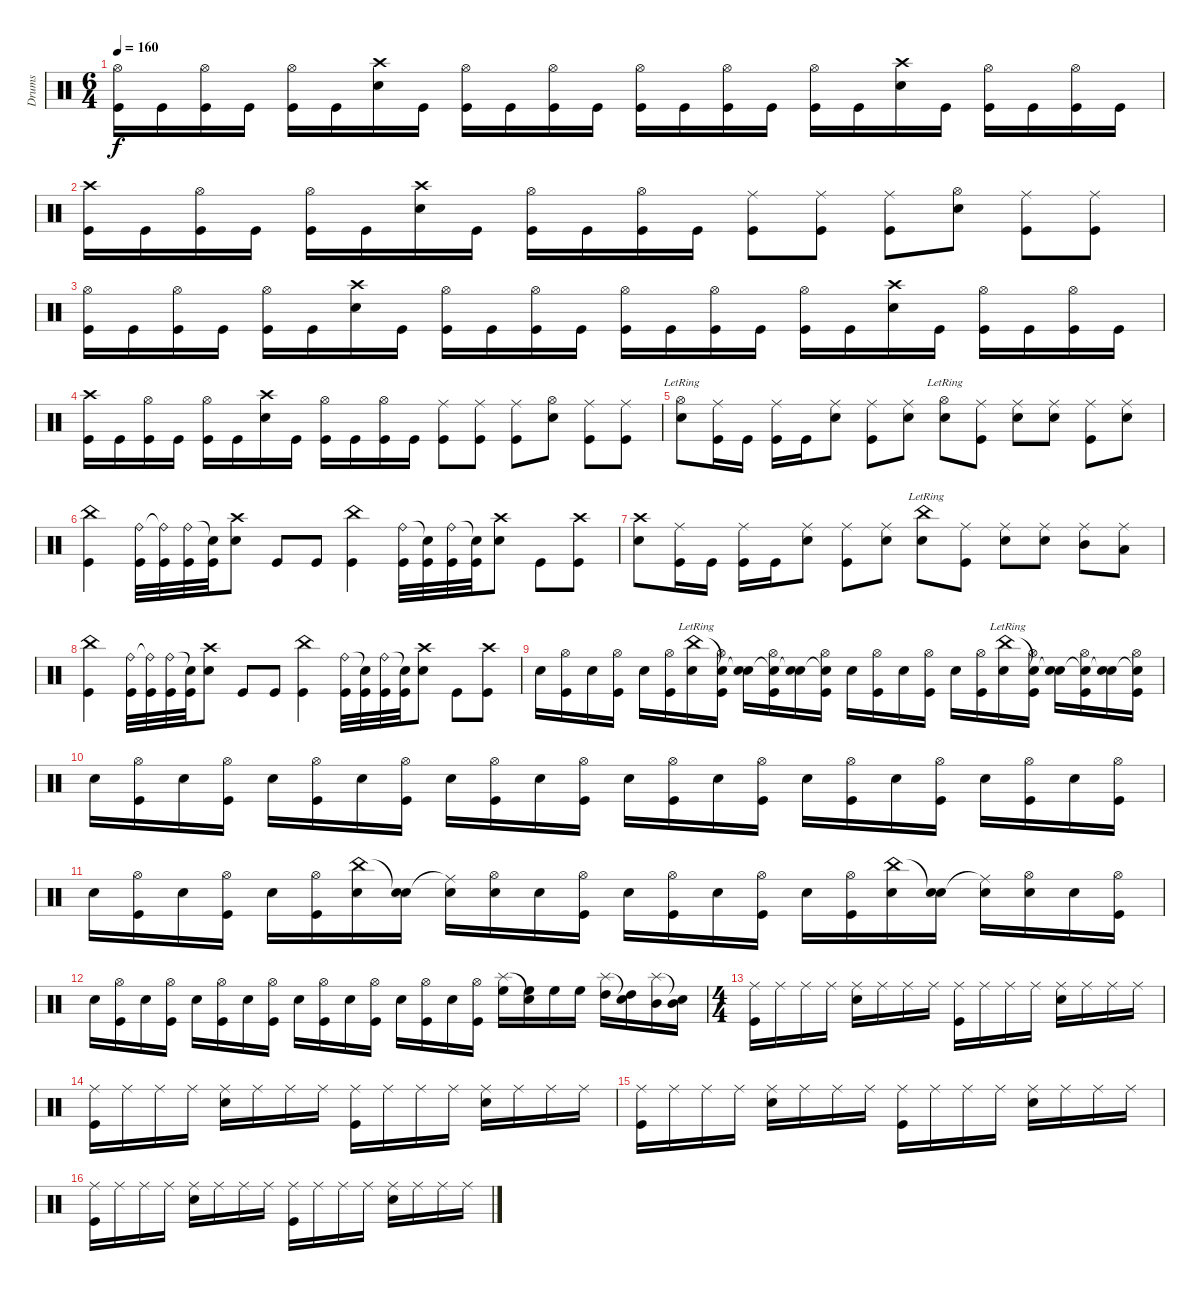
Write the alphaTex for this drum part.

\track ("Drums" "Drums") {instrument percussion}
\staff {score}
\articulation defaults
\ts (6 4)
\tempo 160
\clef neutral
\ks c
("Hi-Hat (open)" "Kick (hit)").16{dy f} "Kick (hit)".16 ("Hi-Hat (open)" "Kick (hit)").16 "Kick (hit)".16 ("Hi-Hat (open)" "Kick (hit)").16 "Kick (hit)".16 ("Crash high (hit)" "Snare (hit) 2").16 "Kick (hit)".16 ("Hi-Hat (open)" "Kick (hit)").16 "Kick (hit)".16 ("Hi-Hat (open)" "Kick (hit)").16 "Kick (hit)".16 ("Hi-Hat (open)" "Kick (hit)").16 "Kick (hit)".16 ("Hi-Hat (open)" "Kick (hit)").16 "Kick (hit)".16 ("Hi-Hat (open)" "Kick (hit)").16 "Kick (hit)".16 ("Crash high (hit)" "Snare (hit) 2").16 "Kick (hit)".16 ("Hi-Hat (open)" "Kick (hit)").16 "Kick (hit)".16 ("Hi-Hat (open)" "Kick (hit)").16 "Kick (hit)".16 |
("Crash high (hit)" "Kick (hit)").16 "Kick (hit)".16 ("Hi-Hat (open)" "Kick (hit)").16 "Kick (hit)".16 ("Hi-Hat (open)" "Kick (hit)").16 "Kick (hit)".16 ("Crash high (hit)" "Snare (hit) 2").16 "Kick (hit)".16 ("Hi-Hat (open)" "Kick (hit)").16 "Kick (hit)".16 ("Hi-Hat (open)" "Kick (hit)").16 "Kick (hit)".16 ("Ride (middle)" "Kick (hit)").8 ("Ride (middle)" "Kick (hit)").8 ("Ride (middle)" "Kick (hit)").8 ("Hi-Hat (open)" "Electric Snare (hit)").8 ("Ride (middle)" "Kick (hit)").8 ("Ride (middle)" "Kick (hit)").8 |
("Hi-Hat (open)" "Kick (hit)").16 "Kick (hit)".16 ("Hi-Hat (open)" "Kick (hit)").16 "Kick (hit)".16 ("Hi-Hat (open)" "Kick (hit)").16 "Kick (hit)".16 ("Crash high (hit)" "Snare (hit) 2").16 "Kick (hit)".16 ("Hi-Hat (open)" "Kick (hit)").16 "Kick (hit)".16 ("Hi-Hat (open)" "Kick (hit)").16 "Kick (hit)".16 ("Hi-Hat (open)" "Kick (hit)").16 "Kick (hit)".16 ("Hi-Hat (open)" "Kick (hit)").16 "Kick (hit)".16 ("Hi-Hat (open)" "Kick (hit)").16 "Kick (hit)".16 ("Crash high (hit)" "Snare (hit) 2").16 "Kick (hit)".16 ("Hi-Hat (open)" "Kick (hit)").16 "Kick (hit)".16 ("Hi-Hat (open)" "Kick (hit)").16 "Kick (hit)".16 |
("Crash high (hit)" "Kick (hit)").16 "Kick (hit)".16 ("Hi-Hat (open)" "Kick (hit)").16 "Kick (hit)".16 ("Hi-Hat (open)" "Kick (hit)").16 "Kick (hit)".16 ("Crash high (hit)" "Snare (hit) 2").16 "Kick (hit)".16 ("Hi-Hat (open)" "Kick (hit)").16 "Kick (hit)".16 ("Hi-Hat (open)" "Kick (hit)").16 "Kick (hit)".16 ("Ride (middle)" "Kick (hit)").8 ("Ride (middle)" "Kick (hit)").8 ("Ride (middle)" "Kick (hit)").8 ("Hi-Hat (open)" "Electric Snare (hit)").8 ("Ride (middle)" "Kick (hit)").8 ("Ride (middle)" "Kick (hit)").8 |
("Hi-Hat (open)"{lr} "Electric Snare (hit)").8 ("Ride (middle)" "Kick (hit)").16 "Kick (hit)".16 ("Ride (middle)" "Kick (hit)").16 "Kick (hit)".16 ("Ride (middle)" "Electric Snare (hit)").8 ("Ride (middle)" "Kick (hit)").8 ("Ride (middle)" "Electric Snare (hit)").8 ("Hi-Hat (open)"{lr} "Electric Snare (hit)").8 ("Ride (middle)" "Kick (hit)").8 ("Ride (middle)" "Electric Snare (hit)").8 ("Ride (middle)" "Electric Snare (hit)").8 ("Ride (middle)" "Kick (hit)").8 ("Ride (middle)" "Electric Snare (hit)").8 |
("China (hit)" "Kick (hit)").4 ("Ride (bell)" "Kick (hit)").32 ("Ride (bell)"{t} "Kick (hit)").32 ("Ride (bell)" "Kick (hit)").32 ("Snare (hit)"{t} "Kick (hit)").32 ("Crash high (hit)" "Electric Snare (hit)").8 "Kick (hit)".8 "Kick (hit)".8 ("China (hit)" "Kick (hit)").4 ("Ride (bell)" "Kick (hit)").32 ("Snare (hit)"{t} "Kick (hit)").32 ("Ride (bell)" "Kick (hit)").32 ("Snare (hit)"{t} "Kick (hit)").32 ("Crash high (hit)" "Electric Snare (hit)").8 "Kick (hit)".8 ("Crash high (hit)" "Kick (hit)").8 |
("Crash high (hit)" "Electric Snare (hit)").8 ("Ride (middle)" "Kick (hit)").16 "Kick (hit)".16 ("Ride (middle)" "Kick (hit)").16 "Kick (hit)".16 ("Ride (middle)" "Electric Snare (hit)").8 ("Ride (middle)" "Kick (hit)").8 ("Ride (middle)" "Electric Snare (hit)").8 ("China (hit)"{lr} "Electric Snare (hit)").8 ("Ride (middle)" "Kick (hit)").8 ("Ride (middle)" "Electric Snare (hit)").8 ("Ride (middle)" "Electric Snare (hit)").8 ("Ride (middle)" "Mid Tom (hit)").8 ("Ride (middle)" "Low Tom (hit)").8 |
("China (hit)" "Kick (hit)").4 ("Ride (bell)" "Kick (hit)").32 ("Ride (bell)"{t} "Kick (hit)").32 ("Ride (bell)" "Kick (hit)").32 ("Snare (hit)"{t} "Kick (hit)").32 ("Crash high (hit)" "Electric Snare (hit)").8 "Kick (hit)".8 "Kick (hit)".8 ("China (hit)" "Kick (hit)").4 ("Ride (bell)" "Kick (hit)").32 ("Snare (hit)"{t} "Kick (hit)").32 ("Ride (bell)" "Kick (hit)").32 ("Snare (hit)"{t} "Kick (hit)").32 ("Crash high (hit)" "Electric Snare (hit)").8 "Kick (hit)".8 ("Crash high (hit)" "Kick (hit)").8 |
"Electric Snare (hit)".16 ("Hi-Hat (open)" "Kick (hit)").16 "Electric Snare (hit)".16 ("Hi-Hat (open)" "Kick (hit)").16 "Electric Snare (hit)".16 ("Hi-Hat (open)" "Kick (hit)").16 ("China (hit)"{lr} "Electric Snare (hit)").16 ("Snare (hit)"{t} "Hi-Hat (open)" "Kick (hit)").16 ("Snare (hit)"{t} "Electric Snare (hit)").16 ("Snare (hit)"{t} "Hi-Hat (open)" "Kick (hit)").16 ("Snare (hit)"{t} "Electric Snare (hit)").16 ("Snare (hit)"{t} "Hi-Hat (open)" "Kick (hit)").16 "Electric Snare (hit)".16 ("Hi-Hat (open)" "Kick (hit)").16 "Electric Snare (hit)".16 ("Hi-Hat (open)" "Kick (hit)").16 "Electric Snare (hit)".16 ("Hi-Hat (open)" "Kick (hit)").16 ("China (hit)"{lr} "Electric Snare (hit)").16 ("Snare (hit)"{t} "Hi-Hat (open)" "Kick (hit)").16 ("Snare (hit)"{t} "Electric Snare (hit)").16 ("Snare (hit)"{t} "Hi-Hat (open)" "Kick (hit)").16 ("Snare (hit)"{t} "Electric Snare (hit)").16 ("Snare (hit)"{t} "Hi-Hat (open)" "Kick (hit)").16 |
"Electric Snare (hit)".16 ("Hi-Hat (open)" "Kick (hit)").16 "Electric Snare (hit)".16 ("Hi-Hat (open)" "Kick (hit)").16 "Electric Snare (hit)".16 ("Hi-Hat (open)" "Kick (hit)").16 "Electric Snare (hit)".16 ("Hi-Hat (open)" "Kick (hit)").16 "Electric Snare (hit)".16 ("Hi-Hat (open)" "Kick (hit)").16 "Electric Snare (hit)".16 ("Hi-Hat (open)" "Kick (hit)").16 "Electric Snare (hit)".16 ("Hi-Hat (open)" "Kick (hit)").16 "Electric Snare (hit)".16 ("Hi-Hat (open)" "Kick (hit)").16 "Electric Snare (hit)".16 ("Hi-Hat (open)" "Kick (hit)").16 "Electric Snare (hit)".16 ("Hi-Hat (open)" "Kick (hit)").16 "Electric Snare (hit)".16 ("Hi-Hat (open)" "Kick (hit)").16 "Electric Snare (hit)".16 ("Hi-Hat (open)" "Kick (hit)").16 |
"Electric Snare (hit)".16 ("Hi-Hat (open)" "Kick (hit)").16 "Electric Snare (hit)".16 ("Hi-Hat (open)" "Kick (hit)").16 "Electric Snare (hit)".16 ("Hi-Hat (open)" "Kick (hit)").16 ("China (hit)" "Electric Snare (hit)").16 ("Snare (hit)"{t} "Electric Snare (hit)").16 ("Ride (middle)"{t} "Electric Snare (hit)").16 ("Hi-Hat (open)" "Electric Snare (hit)").16 "Electric Snare (hit)".16 ("Hi-Hat (open)" "Kick (hit)").16 "Electric Snare (hit)".16 ("Hi-Hat (open)" "Kick (hit)").16 "Electric Snare (hit)".16 ("Hi-Hat (open)" "Kick (hit)").16 "Electric Snare (hit)".16 ("Hi-Hat (open)" "Kick (hit)").16 ("China (hit)" "Electric Snare (hit)").16 ("Snare (hit)"{t} "Electric Snare (hit)").16 ("Ride (middle)"{t} "Electric Snare (hit)").16 ("Hi-Hat (open)" "Electric Snare (hit)").16 "Electric Snare (hit)".16 ("Hi-Hat (open)" "Kick (hit)").16 |
"Electric Snare (hit)".16 ("Hi-Hat (open)" "Kick (hit)").16 "Electric Snare (hit)".16 ("Hi-Hat (open)" "Kick (hit)").16 "Electric Snare (hit)".16 ("Hi-Hat (open)" "Kick (hit)").16 "Electric Snare (hit)".16 ("Hi-Hat (open)" "Kick (hit)").16 "Electric Snare (hit)".16 ("Hi-Hat (open)" "Kick (hit)").16 "Electric Snare (hit)".16 ("Hi-Hat (open)" "Kick (hit)").16 "Electric Snare (hit)".16 ("Hi-Hat (open)" "Kick (hit)").16 "Electric Snare (hit)".16 ("Hi-Hat (open)" "Kick (hit)").16 ("Splash (hit)" "High Floor Tom (hit)").16 ("Snare (hit)"{t} "High Floor Tom (hit)").16 "High Floor Tom (hit)".16 "High Floor Tom (hit)".16 ("Splash (hit)" "High Tom (hit)").16 ("Snare (hit)"{t} "High Tom (hit)").16 ("Splash (hit)" "Mid Tom (hit)").16 ("Snare (hit)"{t} "Mid Tom (hit)").16 |
\ts (4 4)
("Ride (middle)" "Kick (hit)").16 "Ride (middle)".16 "Ride (middle)".16 "Ride (middle)".16 ("Ride (middle)" "Snare (hit) 2").16 "Ride (middle)".16 "Ride (middle)".16 "Ride (middle)".16 ("Ride (middle)" "Kick (hit)").16 "Ride (middle)".16 "Ride (middle)".16 "Ride (middle)".16 ("Ride (middle)" "Snare (hit) 2").16 "Ride (middle)".16 "Ride (middle)".16 "Ride (middle)".16 |
("Ride (middle)" "Kick (hit)").16 "Ride (middle)".16 "Ride (middle)".16 "Ride (middle)".16 ("Ride (middle)" "Snare (hit) 2").16 "Ride (middle)".16 "Ride (middle)".16 "Ride (middle)".16 ("Ride (middle)" "Kick (hit)").16 "Ride (middle)".16 "Ride (middle)".16 "Ride (middle)".16 ("Ride (middle)" "Snare (hit) 2").16 "Ride (middle)".16 "Ride (middle)".16 "Ride (middle)".16 |
("Ride (middle)" "Kick (hit)").16 "Ride (middle)".16 "Ride (middle)".16 "Ride (middle)".16 ("Ride (middle)" "Snare (hit) 2").16 "Ride (middle)".16 "Ride (middle)".16 "Ride (middle)".16 ("Ride (middle)" "Kick (hit)").16 "Ride (middle)".16 "Ride (middle)".16 "Ride (middle)".16 ("Ride (middle)" "Snare (hit) 2").16 "Ride (middle)".16 "Ride (middle)".16 "Ride (middle)".16 |
("Ride (middle)" "Kick (hit)").16 "Ride (middle)".16 "Ride (middle)".16 "Ride (middle)".16 ("Ride (middle)" "Snare (hit) 2").16 "Ride (middle)".16 "Ride (middle)".16 "Ride (middle)".16 ("Ride (middle)" "Kick (hit)").16 "Ride (middle)".16 "Ride (middle)".16 "Ride (middle)".16 ("Ride (middle)" "Snare (hit) 2").16 "Ride (middle)".16 "Ride (middle)".16 "Ride (middle)".16
